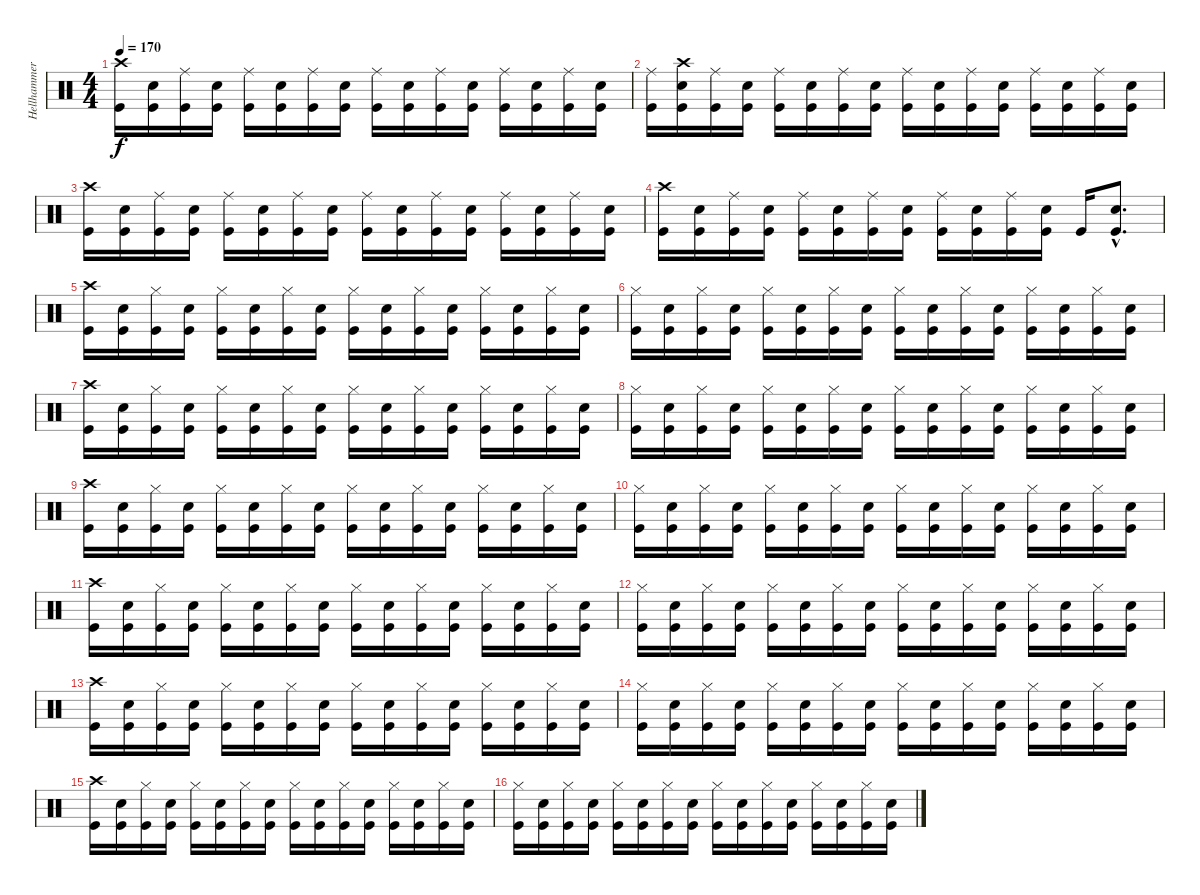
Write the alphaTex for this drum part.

\track ("Hellhammer" "Hellhammer") {instrument percussion}
\staff {score}
\articulation defaults
\ts (4 4)
\tempo 170
\clef neutral
\ks c
("Crash high (hit)" "Kick (hit)").16{dy f} ("Electric Snare (hit)" "Kick (hit)").16 ("Ride (middle)" "Kick (hit)").16 ("Electric Snare (hit)" "Kick (hit)").16 ("Ride (middle)" "Kick (hit)").16 ("Electric Snare (hit)" "Kick (hit)").16 ("Ride (middle)" "Kick (hit)").16 ("Electric Snare (hit)" "Kick (hit)").16 ("Ride (middle)" "Kick (hit)").16 ("Electric Snare (hit)" "Kick (hit)").16 ("Ride (middle)" "Kick (hit)").16 ("Electric Snare (hit)" "Kick (hit)").16 ("Ride (middle)" "Kick (hit)").16 ("Electric Snare (hit)" "Kick (hit)").16 ("Ride (middle)" "Kick (hit)").16 ("Electric Snare (hit)" "Kick (hit)").16 |
("Ride (middle)" "Kick (hit)").16 ("Crash high (hit)" "Electric Snare (hit)" "Kick (hit)").16 ("Ride (middle)" "Kick (hit)").16 ("Electric Snare (hit)" "Kick (hit)").16 ("Ride (middle)" "Kick (hit)").16 ("Electric Snare (hit)" "Kick (hit)").16 ("Ride (middle)" "Kick (hit)").16 ("Electric Snare (hit)" "Kick (hit)").16 ("Ride (middle)" "Kick (hit)").16 ("Electric Snare (hit)" "Kick (hit)").16 ("Ride (middle)" "Kick (hit)").16 ("Electric Snare (hit)" "Kick (hit)").16 ("Ride (middle)" "Kick (hit)").16 ("Electric Snare (hit)" "Kick (hit)").16 ("Ride (middle)" "Kick (hit)").16 ("Electric Snare (hit)" "Kick (hit)").16 |
("Crash high (hit)" "Kick (hit)").16 ("Electric Snare (hit)" "Kick (hit)").16 ("Ride (middle)" "Kick (hit)").16 ("Electric Snare (hit)" "Kick (hit)").16 ("Ride (middle)" "Kick (hit)").16 ("Electric Snare (hit)" "Kick (hit)").16 ("Ride (middle)" "Kick (hit)").16 ("Electric Snare (hit)" "Kick (hit)").16 ("Ride (middle)" "Kick (hit)").16 ("Electric Snare (hit)" "Kick (hit)").16 ("Ride (middle)" "Kick (hit)").16 ("Electric Snare (hit)" "Kick (hit)").16 ("Ride (middle)" "Kick (hit)").16 ("Electric Snare (hit)" "Kick (hit)").16 ("Ride (middle)" "Kick (hit)").16 ("Electric Snare (hit)" "Kick (hit)").16 |
("Crash high (hit)" "Kick (hit)").16 ("Electric Snare (hit)" "Kick (hit)").16 ("Ride (middle)" "Kick (hit)").16 ("Electric Snare (hit)" "Kick (hit)").16 ("Ride (middle)" "Kick (hit)").16 ("Electric Snare (hit)" "Kick (hit)").16 ("Ride (middle)" "Kick (hit)").16 ("Electric Snare (hit)" "Kick (hit)").16 ("Ride (middle)" "Kick (hit)").16 ("Electric Snare (hit)" "Kick (hit)").16 ("Ride (middle)" "Kick (hit)").16 ("Electric Snare (hit)" "Kick (hit)").16 "Kick (hit)".16 ("Electric Snare (hit)"{hac} "Kick (hit)"{hac}).8{d} |
("Crash high (hit)" "Kick (hit)").16 ("Electric Snare (hit)" "Kick (hit)").16 ("Hi-Hat (closed)" "Kick (hit)").16 ("Electric Snare (hit)" "Kick (hit)").16 ("Hi-Hat (closed)" "Kick (hit)").16 ("Electric Snare (hit)" "Kick (hit)").16 ("Hi-Hat (closed)" "Kick (hit)").16 ("Electric Snare (hit)" "Kick (hit)").16 ("Hi-Hat (closed)" "Kick (hit)").16 ("Electric Snare (hit)" "Kick (hit)").16 ("Hi-Hat (closed)" "Kick (hit)").16 ("Electric Snare (hit)" "Kick (hit)").16 ("Hi-Hat (closed)" "Kick (hit)").16 ("Electric Snare (hit)" "Kick (hit)").16 ("Hi-Hat (closed)" "Kick (hit)").16 ("Electric Snare (hit)" "Kick (hit)").16 |
("Hi-Hat (closed)" "Kick (hit)").16 ("Electric Snare (hit)" "Kick (hit)").16 ("Hi-Hat (closed)" "Kick (hit)").16 ("Electric Snare (hit)" "Kick (hit)").16 ("Hi-Hat (closed)" "Kick (hit)").16 ("Electric Snare (hit)" "Kick (hit)").16 ("Hi-Hat (closed)" "Kick (hit)").16 ("Electric Snare (hit)" "Kick (hit)").16 ("Hi-Hat (closed)" "Kick (hit)").16 ("Electric Snare (hit)" "Kick (hit)").16 ("Hi-Hat (closed)" "Kick (hit)").16 ("Electric Snare (hit)" "Kick (hit)").16 ("Hi-Hat (closed)" "Kick (hit)").16 ("Electric Snare (hit)" "Kick (hit)").16 ("Hi-Hat (closed)" "Kick (hit)").16 ("Electric Snare (hit)" "Kick (hit)").16 |
("Crash high (hit)" "Kick (hit)").16 ("Electric Snare (hit)" "Kick (hit)").16 ("Hi-Hat (closed)" "Kick (hit)").16 ("Electric Snare (hit)" "Kick (hit)").16 ("Hi-Hat (closed)" "Kick (hit)").16 ("Electric Snare (hit)" "Kick (hit)").16 ("Hi-Hat (closed)" "Kick (hit)").16 ("Electric Snare (hit)" "Kick (hit)").16 ("Hi-Hat (closed)" "Kick (hit)").16 ("Electric Snare (hit)" "Kick (hit)").16 ("Hi-Hat (closed)" "Kick (hit)").16 ("Electric Snare (hit)" "Kick (hit)").16 ("Hi-Hat (closed)" "Kick (hit)").16 ("Electric Snare (hit)" "Kick (hit)").16 ("Hi-Hat (closed)" "Kick (hit)").16 ("Electric Snare (hit)" "Kick (hit)").16 |
("Hi-Hat (closed)" "Kick (hit)").16 ("Electric Snare (hit)" "Kick (hit)").16 ("Hi-Hat (closed)" "Kick (hit)").16 ("Electric Snare (hit)" "Kick (hit)").16 ("Hi-Hat (closed)" "Kick (hit)").16 ("Electric Snare (hit)" "Kick (hit)").16 ("Hi-Hat (closed)" "Kick (hit)").16 ("Electric Snare (hit)" "Kick (hit)").16 ("Hi-Hat (closed)" "Kick (hit)").16 ("Electric Snare (hit)" "Kick (hit)").16 ("Hi-Hat (closed)" "Kick (hit)").16 ("Electric Snare (hit)" "Kick (hit)").16 ("Hi-Hat (closed)" "Kick (hit)").16 ("Electric Snare (hit)" "Kick (hit)").16 ("Hi-Hat (closed)" "Kick (hit)").16 ("Electric Snare (hit)" "Kick (hit)").16 |
("Crash high (hit)" "Kick (hit)").16 ("Electric Snare (hit)" "Kick (hit)").16 ("Hi-Hat (closed)" "Kick (hit)").16 ("Electric Snare (hit)" "Kick (hit)").16 ("Hi-Hat (closed)" "Kick (hit)").16 ("Electric Snare (hit)" "Kick (hit)").16 ("Hi-Hat (closed)" "Kick (hit)").16 ("Electric Snare (hit)" "Kick (hit)").16 ("Hi-Hat (closed)" "Kick (hit)").16 ("Electric Snare (hit)" "Kick (hit)").16 ("Hi-Hat (closed)" "Kick (hit)").16 ("Electric Snare (hit)" "Kick (hit)").16 ("Hi-Hat (closed)" "Kick (hit)").16 ("Electric Snare (hit)" "Kick (hit)").16 ("Hi-Hat (closed)" "Kick (hit)").16 ("Electric Snare (hit)" "Kick (hit)").16 |
("Hi-Hat (closed)" "Kick (hit)").16 ("Electric Snare (hit)" "Kick (hit)").16 ("Hi-Hat (closed)" "Kick (hit)").16 ("Electric Snare (hit)" "Kick (hit)").16 ("Hi-Hat (closed)" "Kick (hit)").16 ("Electric Snare (hit)" "Kick (hit)").16 ("Hi-Hat (closed)" "Kick (hit)").16 ("Electric Snare (hit)" "Kick (hit)").16 ("Hi-Hat (closed)" "Kick (hit)").16 ("Electric Snare (hit)" "Kick (hit)").16 ("Hi-Hat (closed)" "Kick (hit)").16 ("Electric Snare (hit)" "Kick (hit)").16 ("Hi-Hat (closed)" "Kick (hit)").16 ("Electric Snare (hit)" "Kick (hit)").16 ("Hi-Hat (closed)" "Kick (hit)").16 ("Electric Snare (hit)" "Kick (hit)").16 |
("Crash high (hit)" "Kick (hit)").16 ("Electric Snare (hit)" "Kick (hit)").16 ("Hi-Hat (closed)" "Kick (hit)").16 ("Electric Snare (hit)" "Kick (hit)").16 ("Hi-Hat (closed)" "Kick (hit)").16 ("Electric Snare (hit)" "Kick (hit)").16 ("Hi-Hat (closed)" "Kick (hit)").16 ("Electric Snare (hit)" "Kick (hit)").16 ("Hi-Hat (closed)" "Kick (hit)").16 ("Electric Snare (hit)" "Kick (hit)").16 ("Hi-Hat (closed)" "Kick (hit)").16 ("Electric Snare (hit)" "Kick (hit)").16 ("Hi-Hat (closed)" "Kick (hit)").16 ("Electric Snare (hit)" "Kick (hit)").16 ("Hi-Hat (closed)" "Kick (hit)").16 ("Electric Snare (hit)" "Kick (hit)").16 |
("Hi-Hat (closed)" "Kick (hit)").16 ("Electric Snare (hit)" "Kick (hit)").16 ("Hi-Hat (closed)" "Kick (hit)").16 ("Electric Snare (hit)" "Kick (hit)").16 ("Hi-Hat (closed)" "Kick (hit)").16 ("Electric Snare (hit)" "Kick (hit)").16 ("Hi-Hat (closed)" "Kick (hit)").16 ("Electric Snare (hit)" "Kick (hit)").16 ("Hi-Hat (closed)" "Kick (hit)").16 ("Electric Snare (hit)" "Kick (hit)").16 ("Hi-Hat (closed)" "Kick (hit)").16 ("Electric Snare (hit)" "Kick (hit)").16 ("Hi-Hat (closed)" "Kick (hit)").16 ("Electric Snare (hit)" "Kick (hit)").16 ("Hi-Hat (closed)" "Kick (hit)").16 ("Electric Snare (hit)" "Kick (hit)").16 |
("Crash high (hit)" "Kick (hit)").16 ("Electric Snare (hit)" "Kick (hit)").16 ("Hi-Hat (closed)" "Kick (hit)").16 ("Electric Snare (hit)" "Kick (hit)").16 ("Hi-Hat (closed)" "Kick (hit)").16 ("Electric Snare (hit)" "Kick (hit)").16 ("Hi-Hat (closed)" "Kick (hit)").16 ("Electric Snare (hit)" "Kick (hit)").16 ("Hi-Hat (closed)" "Kick (hit)").16 ("Electric Snare (hit)" "Kick (hit)").16 ("Hi-Hat (closed)" "Kick (hit)").16 ("Electric Snare (hit)" "Kick (hit)").16 ("Hi-Hat (closed)" "Kick (hit)").16 ("Electric Snare (hit)" "Kick (hit)").16 ("Hi-Hat (closed)" "Kick (hit)").16 ("Electric Snare (hit)" "Kick (hit)").16 |
("Hi-Hat (closed)" "Kick (hit)").16 ("Electric Snare (hit)" "Kick (hit)").16 ("Hi-Hat (closed)" "Kick (hit)").16 ("Electric Snare (hit)" "Kick (hit)").16 ("Hi-Hat (closed)" "Kick (hit)").16 ("Electric Snare (hit)" "Kick (hit)").16 ("Hi-Hat (closed)" "Kick (hit)").16 ("Electric Snare (hit)" "Kick (hit)").16 ("Hi-Hat (closed)" "Kick (hit)").16 ("Electric Snare (hit)" "Kick (hit)").16 ("Hi-Hat (closed)" "Kick (hit)").16 ("Electric Snare (hit)" "Kick (hit)").16 ("Hi-Hat (closed)" "Kick (hit)").16 ("Electric Snare (hit)" "Kick (hit)").16 ("Hi-Hat (closed)" "Kick (hit)").16 ("Electric Snare (hit)" "Kick (hit)").16 |
("Crash high (hit)" "Kick (hit)").16 ("Electric Snare (hit)" "Kick (hit)").16 ("Hi-Hat (closed)" "Kick (hit)").16 ("Electric Snare (hit)" "Kick (hit)").16 ("Hi-Hat (closed)" "Kick (hit)").16 ("Electric Snare (hit)" "Kick (hit)").16 ("Hi-Hat (closed)" "Kick (hit)").16 ("Electric Snare (hit)" "Kick (hit)").16 ("Hi-Hat (closed)" "Kick (hit)").16 ("Electric Snare (hit)" "Kick (hit)").16 ("Hi-Hat (closed)" "Kick (hit)").16 ("Electric Snare (hit)" "Kick (hit)").16 ("Hi-Hat (closed)" "Kick (hit)").16 ("Electric Snare (hit)" "Kick (hit)").16 ("Hi-Hat (closed)" "Kick (hit)").16 ("Electric Snare (hit)" "Kick (hit)").16 |
("Hi-Hat (closed)" "Kick (hit)").16 ("Electric Snare (hit)" "Kick (hit)").16 ("Hi-Hat (closed)" "Kick (hit)").16 ("Electric Snare (hit)" "Kick (hit)").16 ("Hi-Hat (closed)" "Kick (hit)").16 ("Electric Snare (hit)" "Kick (hit)").16 ("Hi-Hat (closed)" "Kick (hit)").16 ("Electric Snare (hit)" "Kick (hit)").16 ("Hi-Hat (closed)" "Kick (hit)").16 ("Electric Snare (hit)" "Kick (hit)").16 ("Hi-Hat (closed)" "Kick (hit)").16 ("Electric Snare (hit)" "Kick (hit)").16 ("Hi-Hat (closed)" "Kick (hit)").16 ("Electric Snare (hit)" "Kick (hit)").16 ("Hi-Hat (closed)" "Kick (hit)").16 ("Electric Snare (hit)" "Kick (hit)").16
